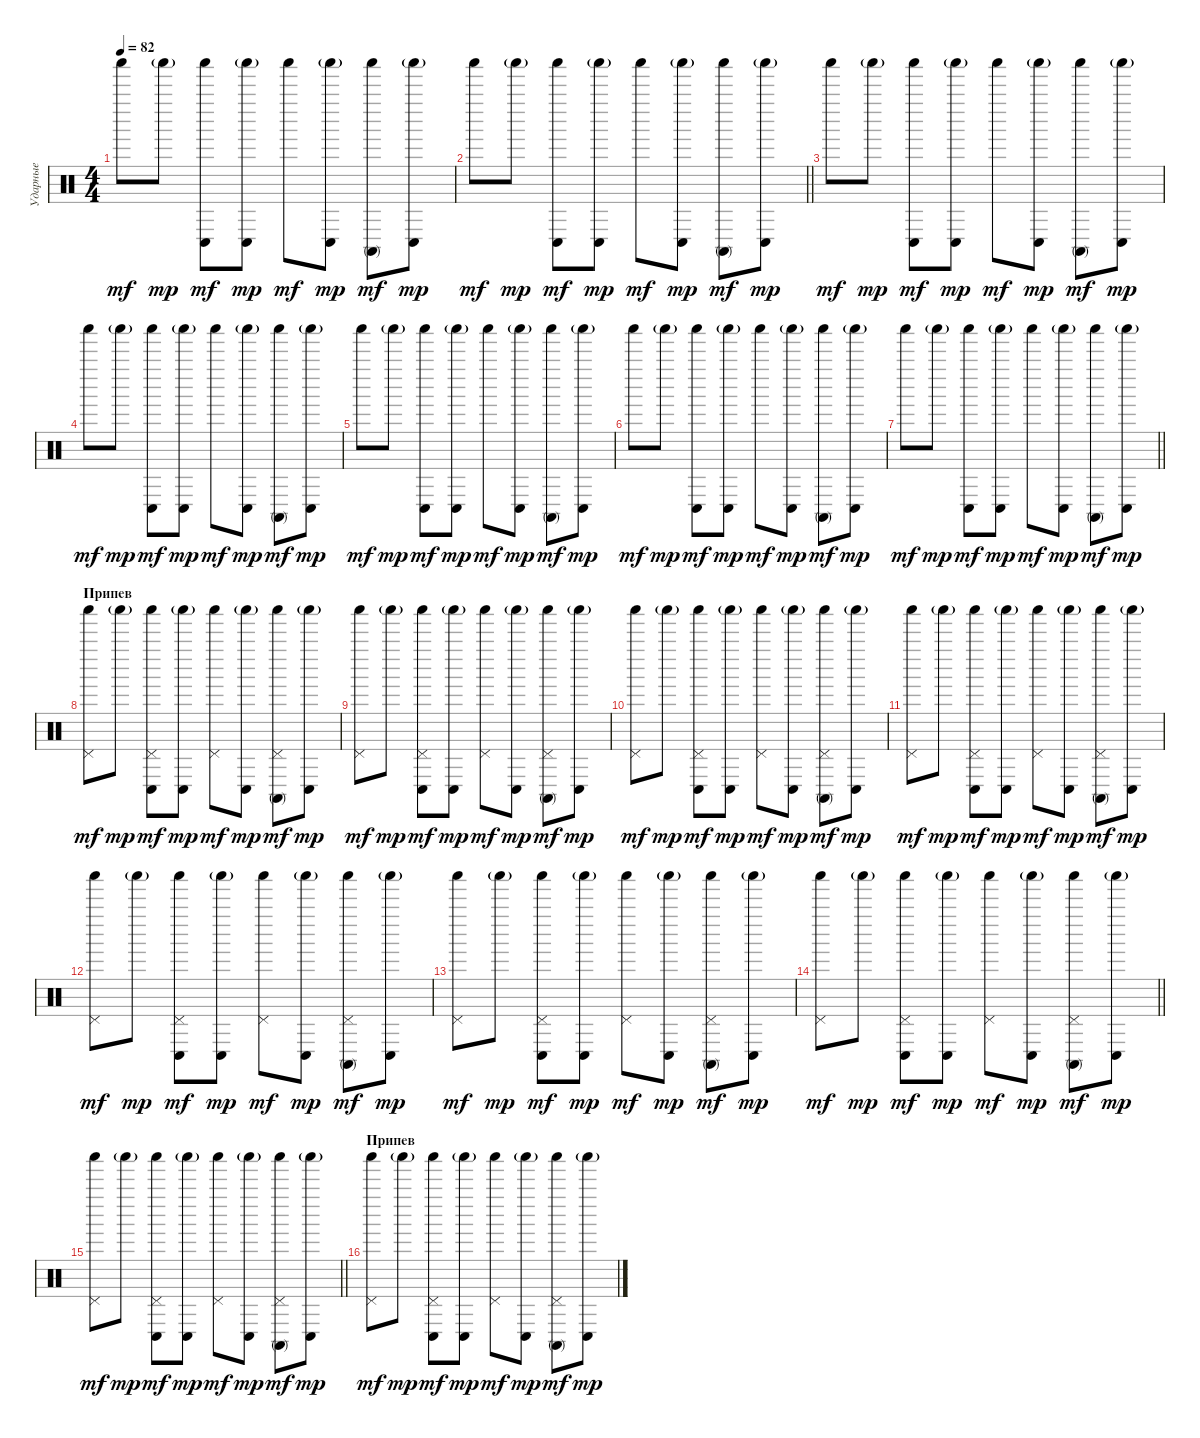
\track ("Ударные" "Ударные") {instrument percussion}
\staff {score}
\articulation defaults
\ts (4 4)
\tempo 82
\clef neutral
\ks aminor "Shaker (hit)".8{dy mf} "Shaker (hit)"{g}.8{dy mp}
("Shaker (hit)" "Conga low (hit)").8{dy mf} ("Shaker (hit)"{g} "Conga low (hit)").8{dy mp} "Shaker (hit)".8{dy mf} ("Shaker (hit)"{g} "Conga low (hit)").8{dy mp} ("Shaker (hit)" "Conga high (mute)").8{dy mf} ("Shaker (hit)"{g} "Conga low (hit)").8{dy mp} |
\barLineRight lightlight "Shaker (hit)".8{dy mf} "Shaker (hit)"{g}.8{dy mp}
("Shaker (hit)" "Conga low (hit)").8{dy mf} ("Shaker (hit)"{g} "Conga low (hit)").8{dy mp} "Shaker (hit)".8{dy mf} ("Shaker (hit)"{g} "Conga low (hit)").8{dy mp} ("Shaker (hit)" "Conga high (mute)").8{dy mf} ("Shaker (hit)"{g} "Conga low (hit)").8{dy mp} |
"Shaker (hit)".8{dy mf} "Shaker (hit)"{g}.8{dy mp} ("Shaker (hit)" "Conga low (hit)").8{dy mf} ("Shaker (hit)"{g} "Conga low (hit)").8{dy mp} "Shaker (hit)".8{dy mf} ("Shaker (hit)"{g} "Conga low (hit)").8{dy mp} ("Shaker (hit)" "Conga high (mute)").8{dy mf} ("Shaker (hit)"{g} "Conga low (hit)").8{dy mp} |
"Shaker (hit)".8{dy mf} "Shaker (hit)"{g}.8{dy mp} ("Shaker (hit)" "Conga low (hit)").8{dy mf} ("Shaker (hit)"{g} "Conga low (hit)").8{dy mp} "Shaker (hit)".8{dy mf} ("Shaker (hit)"{g} "Conga low (hit)").8{dy mp} ("Shaker (hit)" "Conga high (mute)").8{dy mf} ("Shaker (hit)"{g} "Conga low (hit)").8{dy mp} |
"Shaker (hit)".8{dy mf} "Shaker (hit)"{g}.8{dy mp} ("Shaker (hit)" "Conga low (hit)").8{dy mf} ("Shaker (hit)"{g} "Conga low (hit)").8{dy mp} "Shaker (hit)".8{dy mf} ("Shaker (hit)"{g} "Conga low (hit)").8{dy mp} ("Shaker (hit)" "Conga high (mute)").8{dy mf} ("Shaker (hit)"{g} "Conga low (hit)").8{dy mp} |
"Shaker (hit)".8{dy mf} "Shaker (hit)"{g}.8{dy mp} ("Shaker (hit)" "Conga low (hit)").8{dy mf} ("Shaker (hit)"{g} "Conga low (hit)").8{dy mp} "Shaker (hit)".8{dy mf} ("Shaker (hit)"{g} "Conga low (hit)").8{dy mp} ("Shaker (hit)" "Conga high (mute)").8{dy mf} ("Shaker (hit)"{g} "Conga low (hit)").8{dy mp} |
\barLineRight lightlight "Shaker (hit)".8{dy mf} "Shaker (hit)"{g}.8{dy mp}
("Shaker (hit)" "Conga low (hit)").8{dy mf} ("Shaker (hit)"{g} "Conga low (hit)").8{dy mp} "Shaker (hit)".8{dy mf} ("Shaker (hit)"{g} "Conga low (hit)").8{dy mp} ("Shaker (hit)" "Conga high (mute)").8{dy mf} ("Shaker (hit)"{g} "Conga low (hit)").8{dy mp} |
\section ("" "Припев")
("Shaker (hit)" "Pedal Hi-Hat (hit)").8{dy mf} "Shaker (hit)"{g}.8{dy mp} ("Shaker (hit)" "Conga low (hit)" "Pedal Hi-Hat (hit)").8{dy mf} ("Shaker (hit)"{g} "Conga low (hit)").8{dy mp} ("Shaker (hit)" "Pedal Hi-Hat (hit)").8{dy mf} ("Shaker (hit)"{g} "Conga low (hit)").8{dy mp} ("Shaker (hit)" "Conga high (mute)" "Pedal Hi-Hat (hit)").8{dy mf} ("Shaker (hit)"{g} "Conga low (hit)").8{dy mp} |
("Shaker (hit)" "Pedal Hi-Hat (hit)").8{dy mf} "Shaker (hit)"{g}.8{dy mp} ("Shaker (hit)" "Conga low (hit)" "Pedal Hi-Hat (hit)").8{dy mf} ("Shaker (hit)"{g} "Conga low (hit)").8{dy mp} ("Shaker (hit)" "Pedal Hi-Hat (hit)").8{dy mf} ("Shaker (hit)"{g} "Conga low (hit)").8{dy mp} ("Shaker (hit)" "Conga high (mute)" "Pedal Hi-Hat (hit)").8{dy mf} ("Shaker (hit)"{g} "Conga low (hit)").8{dy mp} |
("Shaker (hit)" "Pedal Hi-Hat (hit)").8{dy mf} "Shaker (hit)"{g}.8{dy mp} ("Shaker (hit)" "Conga low (hit)" "Pedal Hi-Hat (hit)").8{dy mf} ("Shaker (hit)"{g} "Conga low (hit)").8{dy mp} ("Shaker (hit)" "Pedal Hi-Hat (hit)").8{dy mf} ("Shaker (hit)"{g} "Conga low (hit)").8{dy mp} ("Shaker (hit)" "Conga high (mute)" "Pedal Hi-Hat (hit)").8{dy mf} ("Shaker (hit)"{g} "Conga low (hit)").8{dy mp} |
("Shaker (hit)" "Pedal Hi-Hat (hit)").8{dy mf} "Shaker (hit)"{g}.8{dy mp} ("Shaker (hit)" "Conga low (hit)" "Pedal Hi-Hat (hit)").8{dy mf} ("Shaker (hit)"{g} "Conga low (hit)").8{dy mp} ("Shaker (hit)" "Pedal Hi-Hat (hit)").8{dy mf} ("Shaker (hit)"{g} "Conga low (hit)").8{dy mp} ("Shaker (hit)" "Conga high (mute)" "Pedal Hi-Hat (hit)").8{dy mf} ("Shaker (hit)"{g} "Conga low (hit)").8{dy mp} |
("Shaker (hit)" "Pedal Hi-Hat (hit)").8{dy mf} "Shaker (hit)"{g}.8{dy mp} ("Shaker (hit)" "Conga low (hit)" "Pedal Hi-Hat (hit)").8{dy mf} ("Shaker (hit)"{g} "Conga low (hit)").8{dy mp} ("Shaker (hit)" "Pedal Hi-Hat (hit)").8{dy mf} ("Shaker (hit)"{g} "Conga low (hit)").8{dy mp} ("Shaker (hit)" "Conga high (mute)" "Pedal Hi-Hat (hit)").8{dy mf} ("Shaker (hit)"{g} "Conga low (hit)").8{dy mp} |
("Shaker (hit)" "Pedal Hi-Hat (hit)").8{dy mf} "Shaker (hit)"{g}.8{dy mp} ("Shaker (hit)" "Conga low (hit)" "Pedal Hi-Hat (hit)").8{dy mf} ("Shaker (hit)"{g} "Conga low (hit)").8{dy mp} ("Shaker (hit)" "Pedal Hi-Hat (hit)").8{dy mf} ("Shaker (hit)"{g} "Conga low (hit)").8{dy mp} ("Shaker (hit)" "Conga high (mute)" "Pedal Hi-Hat (hit)").8{dy mf} ("Shaker (hit)"{g} "Conga low (hit)").8{dy mp} |
\barLineRight lightlight
("Shaker (hit)" "Pedal Hi-Hat (hit)").8{dy mf} "Shaker (hit)"{g}.8{dy mp} ("Shaker (hit)" "Conga low (hit)" "Pedal Hi-Hat (hit)").8{dy mf} ("Shaker (hit)"{g} "Conga low (hit)").8{dy mp} ("Shaker (hit)" "Pedal Hi-Hat (hit)").8{dy mf} ("Shaker (hit)"{g} "Conga low (hit)").8{dy mp} ("Shaker (hit)" "Conga high (mute)" "Pedal Hi-Hat (hit)").8{dy mf} ("Shaker (hit)"{g} "Conga low (hit)").8{dy mp} |
\barLineRight lightlight
("Shaker (hit)" "Pedal Hi-Hat (hit)").8{dy mf} "Shaker (hit)"{g}.8{dy mp} ("Shaker (hit)" "Conga low (hit)" "Pedal Hi-Hat (hit)").8{dy mf} ("Shaker (hit)"{g} "Conga low (hit)").8{dy mp} ("Shaker (hit)" "Pedal Hi-Hat (hit)").8{dy mf} ("Shaker (hit)"{g} "Conga low (hit)").8{dy mp} ("Shaker (hit)" "Conga high (mute)" "Pedal Hi-Hat (hit)").8{dy mf} ("Shaker (hit)"{g} "Conga low (hit)").8{dy mp} |
\section ("" "Припев")
("Shaker (hit)" "Pedal Hi-Hat (hit)").8{dy mf} "Shaker (hit)"{g}.8{dy mp} ("Shaker (hit)" "Conga low (hit)" "Pedal Hi-Hat (hit)").8{dy mf} ("Shaker (hit)"{g} "Conga low (hit)").8{dy mp} ("Shaker (hit)" "Pedal Hi-Hat (hit)").8{dy mf} ("Shaker (hit)"{g} "Conga low (hit)").8{dy mp} ("Shaker (hit)" "Conga high (mute)" "Pedal Hi-Hat (hit)").8{dy mf} ("Shaker (hit)"{g} "Conga low (hit)").8{dy mp}
